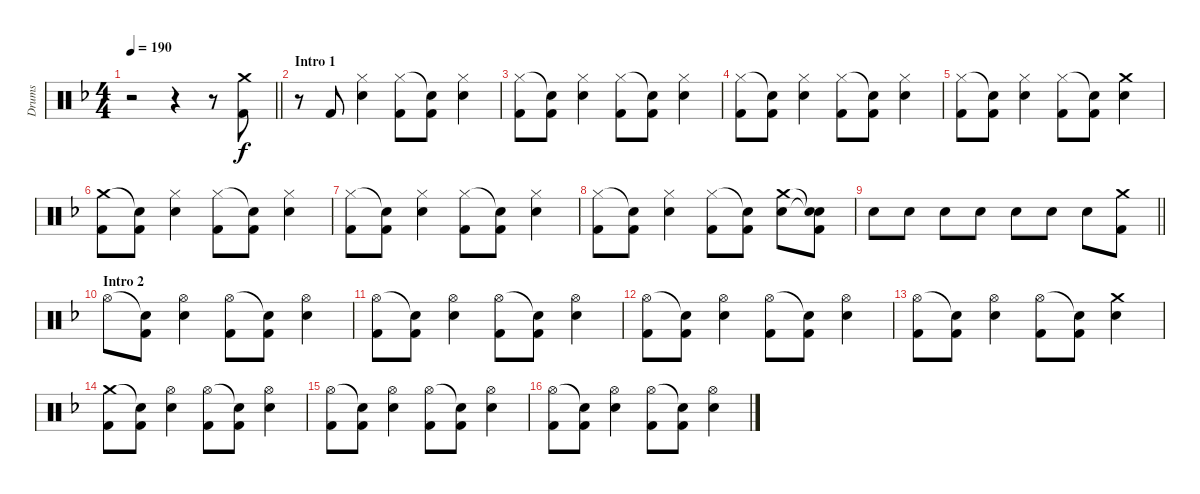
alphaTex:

\track ("Drums" "Drums") {instrument percussion}
\staff {score}
\articulation defaults
\ts (4 4)
\tempo 190
\clef neutral
\barLineRight lightlight
\ks dminor
r.2{dy f} r.4 r.8 ("Crash medium (hit)" "Kick (hit) 2").8 |
\section ("" "Intro 1")
r.8 "Kick (hit) 2".8 ("Hi-Hat (closed)" "Electric Snare (hit)").4 ("Hi-Hat (closed)" "Kick (hit) 2").8 ("Snare (hit)"{t} "Kick (hit) 2").8 ("Hi-Hat (closed)" "Electric Snare (hit)").4 |
("Hi-Hat (closed)" "Kick (hit) 2").8 ("Snare (hit)"{t} "Kick (hit) 2").8 ("Hi-Hat (closed)" "Electric Snare (hit)").4 ("Hi-Hat (closed)" "Kick (hit) 2").8 ("Snare (hit)"{t} "Kick (hit) 2").8 ("Hi-Hat (closed)" "Electric Snare (hit)").4 |
("Hi-Hat (closed)" "Kick (hit) 2").8 ("Snare (hit)"{t} "Kick (hit) 2").8 ("Hi-Hat (closed)" "Electric Snare (hit)").4 ("Hi-Hat (closed)" "Kick (hit) 2").8 ("Snare (hit)"{t} "Kick (hit) 2").8 ("Hi-Hat (closed)" "Electric Snare (hit)").4 |
("Hi-Hat (closed)" "Kick (hit) 2").8 ("Snare (hit)"{t} "Kick (hit) 2").8 ("Hi-Hat (closed)" "Electric Snare (hit)").4 ("Hi-Hat (closed)" "Kick (hit) 2").8 ("Snare (hit)"{t} "Kick (hit) 2").8 ("Crash medium (hit)" "Electric Snare (hit)").4 |
("Crash medium (hit)" "Kick (hit) 2").8 ("Snare (hit)"{t} "Kick (hit) 2").8 ("Hi-Hat (closed)" "Electric Snare (hit)").4 ("Hi-Hat (closed)" "Kick (hit) 2").8 ("Snare (hit)"{t} "Kick (hit) 2").8 ("Hi-Hat (closed)" "Electric Snare (hit)").4 |
("Hi-Hat (closed)" "Kick (hit) 2").8 ("Snare (hit)"{t} "Kick (hit) 2").8 ("Hi-Hat (closed)" "Electric Snare (hit)").4 ("Hi-Hat (closed)" "Kick (hit) 2").8 ("Snare (hit)"{t} "Kick (hit) 2").8 ("Hi-Hat (closed)" "Electric Snare (hit)").4 |
("Hi-Hat (closed)" "Kick (hit) 2").8 ("Snare (hit)"{t} "Kick (hit) 2").8 ("Hi-Hat (closed)" "Electric Snare (hit)").4 ("Hi-Hat (closed)" "Kick (hit) 2").8 ("Snare (hit)"{t} "Kick (hit) 2").8 ("Crash medium (hit)" "Electric Snare (hit)").8 ("Snare (hit)"{t} "Snare (hit)"{t} "Kick (hit) 2").8 |
\barLineRight lightlight "Electric Snare (hit)".8 "Electric Snare (hit)".8 "Electric Snare (hit)".8 "Electric Snare (hit)".8 "Electric Snare (hit)".8 "Electric Snare (hit)".8 "Electric Snare (hit)".8
("Crash medium (hit)" "Kick (hit) 2").8 |
\section ("" "Intro 2")
"Hi-Hat (open)".8 ("Snare (hit)"{t} "Kick (hit) 2").8 ("Hi-Hat (open)" "Electric Snare (hit)").4 ("Hi-Hat (open)" "Kick (hit) 2").8 ("Snare (hit)"{t} "Kick (hit) 2").8 ("Hi-Hat (open)" "Electric Snare (hit)").4 |
("Hi-Hat (open)" "Kick (hit) 2").8 ("Snare (hit)"{t} "Kick (hit) 2").8 ("Hi-Hat (open)" "Electric Snare (hit)").4 ("Hi-Hat (open)" "Kick (hit) 2").8 ("Snare (hit)"{t} "Kick (hit) 2").8 ("Hi-Hat (open)" "Electric Snare (hit)").4 |
("Hi-Hat (open)" "Kick (hit) 2").8 ("Snare (hit)"{t} "Kick (hit) 2").8 ("Hi-Hat (open)" "Electric Snare (hit)").4 ("Hi-Hat (open)" "Kick (hit) 2").8 ("Snare (hit)"{t} "Kick (hit) 2").8 ("Hi-Hat (open)" "Electric Snare (hit)").4 |
("Hi-Hat (open)" "Kick (hit) 2").8 ("Snare (hit)"{t} "Kick (hit) 2").8 ("Hi-Hat (open)" "Electric Snare (hit)").4 ("Hi-Hat (open)" "Kick (hit) 2").8 ("Snare (hit)"{t} "Kick (hit) 2").8 ("Crash medium (hit)" "Electric Snare (hit)").4 |
("Crash medium (hit)" "Kick (hit) 2").8 ("Snare (hit)"{t} "Kick (hit) 2").8 ("Hi-Hat (open)" "Electric Snare (hit)").4 ("Hi-Hat (open)" "Kick (hit) 2").8 ("Snare (hit)"{t} "Kick (hit) 2").8 ("Hi-Hat (open)" "Electric Snare (hit)").4 |
("Hi-Hat (open)" "Kick (hit) 2").8 ("Snare (hit)"{t} "Kick (hit) 2").8 ("Hi-Hat (open)" "Electric Snare (hit)").4 ("Hi-Hat (open)" "Kick (hit) 2").8 ("Snare (hit)"{t} "Kick (hit) 2").8 ("Hi-Hat (open)" "Electric Snare (hit)").4 |
("Hi-Hat (open)" "Kick (hit) 2").8 ("Snare (hit)"{t} "Kick (hit) 2").8 ("Hi-Hat (open)" "Electric Snare (hit)").4 ("Hi-Hat (open)" "Kick (hit) 2").8 ("Snare (hit)"{t} "Kick (hit) 2").8 ("Hi-Hat (open)" "Electric Snare (hit)").4
